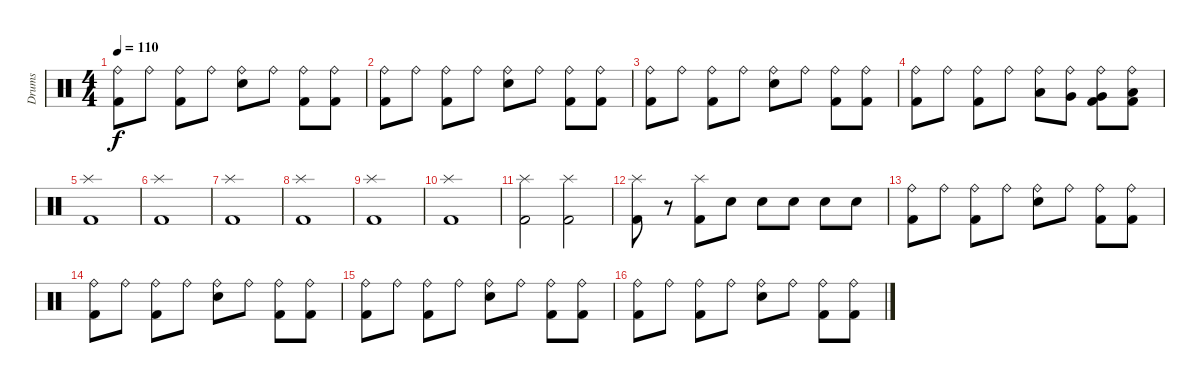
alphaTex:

\track ("Drums" "Drums") {instrument percussion}
\staff {score}
\articulation defaults
\ts (4 4)
\tempo 110
\clef neutral
\ks c
("Ride (bell)" "Kick (hit) 2").8{dy f} "Ride (bell)".8 ("Ride (bell)" "Kick (hit) 2").8 "Ride (bell)".8 ("Ride (bell)" "Electric Snare (hit)").8 "Ride (bell)".8 ("Ride (bell)" "Kick (hit) 2").8 ("Ride (bell)" "Kick (hit) 2").8 |
("Ride (bell)" "Kick (hit) 2").8 "Ride (bell)".8 ("Ride (bell)" "Kick (hit) 2").8 "Ride (bell)".8 ("Ride (bell)" "Electric Snare (hit)").8 "Ride (bell)".8 ("Ride (bell)" "Kick (hit) 2").8 ("Ride (bell)" "Kick (hit) 2").8 |
("Ride (bell)" "Kick (hit) 2").8 "Ride (bell)".8 ("Ride (bell)" "Kick (hit) 2").8 "Ride (bell)".8 ("Ride (bell)" "Electric Snare (hit)").8 "Ride (bell)".8 ("Ride (bell)" "Kick (hit) 2").8 ("Ride (bell)" "Kick (hit) 2").8 |
("Ride (bell)" "Kick (hit) 2").8 "Ride (bell)".8 ("Ride (bell)" "Kick (hit) 2").8 "Ride (bell)".8 ("Ride (bell)" "Low Tom (hit)").8 ("Ride (bell)" "Very Low Tom (hit)").8 ("Ride (bell)" "Very Low Tom (hit)" "Kick (hit) 2").8 ("Ride (bell)" "Low Floor Tom (hit)" "Kick (hit) 2").8 |
("Splash (hit)" "Kick (hit) 2").1 |
("Splash (hit)" "Kick (hit) 2").1 |
("Splash (hit)" "Kick (hit) 2").1 |
("Splash (hit)" "Kick (hit) 2").1 |
("Splash (hit)" "Kick (hit) 2").1 |
("Splash (hit)" "Kick (hit) 2").1 |
("Splash (hit)" "Kick (hit) 2").2 ("Splash (hit)" "Kick (hit) 2").2 |
("Splash (hit)" "Kick (hit) 2").8 r.8 ("Splash (hit)" "Kick (hit) 2").8 "Electric Snare (hit)".8 "Electric Snare (hit)".8 "Electric Snare (hit)".8 "Electric Snare (hit)".8 "Electric Snare (hit)".8 |
("Ride (bell)" "Kick (hit) 2").8 "Ride (bell)".8 ("Ride (bell)" "Kick (hit) 2").8 "Ride (bell)".8 ("Ride (bell)" "Electric Snare (hit)").8 "Ride (bell)".8 ("Ride (bell)" "Kick (hit) 2").8 ("Ride (bell)" "Kick (hit) 2").8 |
("Ride (bell)" "Kick (hit) 2").8 "Ride (bell)".8 ("Ride (bell)" "Kick (hit) 2").8 "Ride (bell)".8 ("Ride (bell)" "Electric Snare (hit)").8 "Ride (bell)".8 ("Ride (bell)" "Kick (hit) 2").8 ("Ride (bell)" "Kick (hit) 2").8 |
("Ride (bell)" "Kick (hit) 2").8 "Ride (bell)".8 ("Ride (bell)" "Kick (hit) 2").8 "Ride (bell)".8 ("Ride (bell)" "Electric Snare (hit)").8 "Ride (bell)".8 ("Ride (bell)" "Kick (hit) 2").8 ("Ride (bell)" "Kick (hit) 2").8 |
("Ride (bell)" "Kick (hit) 2").8 "Ride (bell)".8 ("Ride (bell)" "Kick (hit) 2").8 "Ride (bell)".8 ("Ride (bell)" "Electric Snare (hit)").8 "Ride (bell)".8 ("Ride (bell)" "Kick (hit) 2").8 ("Ride (bell)" "Kick (hit) 2").8
